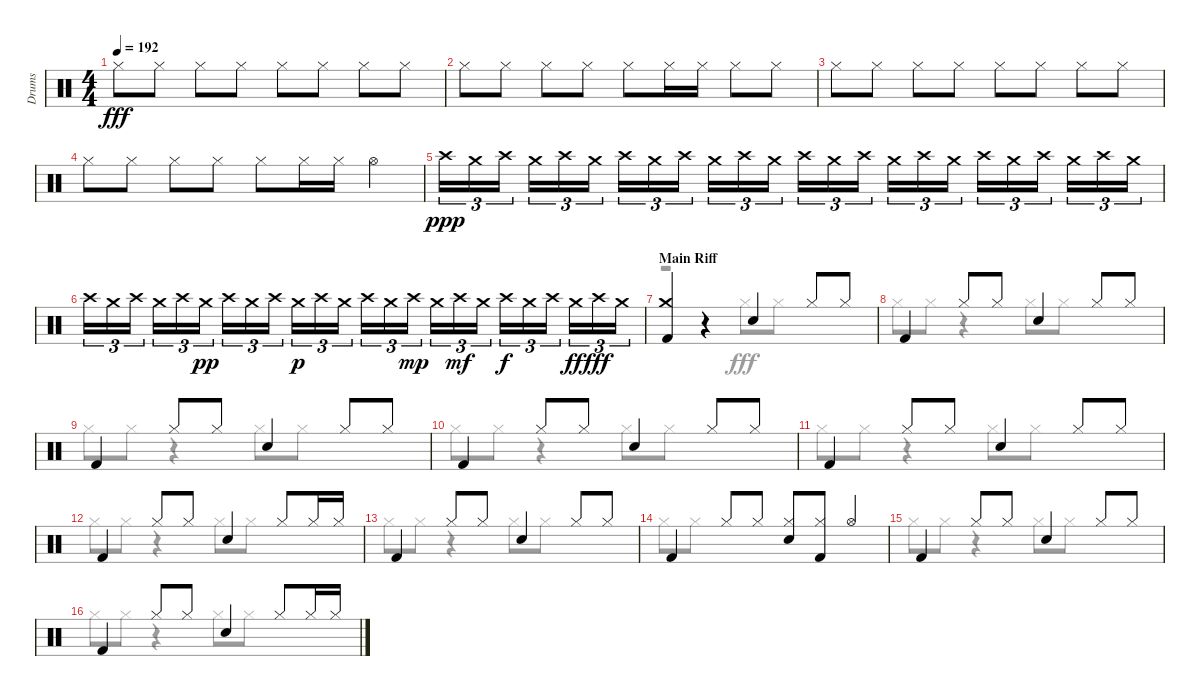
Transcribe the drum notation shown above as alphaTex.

\track ("Drums" "Drums") {instrument percussion}
\staff {score}
\articulation defaults
\voice
\ts (4 4)
\tempo 192
\clef neutral
\ks aminor "Hi-Hat (closed)".8{dy fff} "Hi-Hat (closed)".8 "Hi-Hat (closed)".8 "Hi-Hat (closed)".8 "Hi-Hat (closed)".8 "Hi-Hat (closed)".8 "Hi-Hat (closed)".8 "Hi-Hat (closed)".8
|
"Hi-Hat (closed)".8 "Hi-Hat (closed)".8 "Hi-Hat (closed)".8 "Hi-Hat (closed)".8 "Hi-Hat (closed)".8 "Hi-Hat (closed)".16 "Hi-Hat (closed)".16 "Hi-Hat (closed)".8 "Hi-Hat (closed)".8 |
"Hi-Hat (closed)".8 "Hi-Hat (closed)".8 "Hi-Hat (closed)".8 "Hi-Hat (closed)".8 "Hi-Hat (closed)".8 "Hi-Hat (closed)".8 "Hi-Hat (closed)".8 "Hi-Hat (closed)".8 |
"Hi-Hat (closed)".8 "Hi-Hat (closed)".8 "Hi-Hat (closed)".8 "Hi-Hat (closed)".8 "Hi-Hat (closed)".8 "Hi-Hat (closed)".16 "Hi-Hat (closed)".16 "Hi-Hat (open)".4 |
"Crash high (hit)".16{tu (3 2) dy ppp} "Crash medium (hit)".16{tu (3 2)} "Crash high (hit)".16{tu (3 2)} "Crash medium (hit)".16{tu (3 2)} "Crash high (hit)".16{tu (3 2)} "Crash medium (hit)".16{tu (3 2)} "Crash high (hit)".16{tu (3 2)} "Crash medium (hit)".16{tu (3 2)} "Crash high (hit)".16{tu (3 2)} "Crash medium (hit)".16{tu (3 2)} "Crash high (hit)".16{tu (3 2)} "Crash medium (hit)".16{tu (3 2)} "Crash high (hit)".16{tu (3 2)} "Crash medium (hit)".16{tu (3 2)} "Crash high (hit)".16{tu (3 2)} "Crash medium (hit)".16{tu (3 2)} "Crash high (hit)".16{tu (3 2)} "Crash medium (hit)".16{tu (3 2)} "Crash high (hit)".16{tu (3 2)} "Crash medium (hit)".16{tu (3 2)} "Crash high (hit)".16{tu (3 2)} "Crash medium (hit)".16{tu (3 2)} "Crash high (hit)".16{tu (3 2)} "Crash medium (hit)".16{tu (3 2)} |
"Crash high (hit)".16{tu (3 2)} "Crash medium (hit)".16{tu (3 2)} "Crash high (hit)".16{tu (3 2)} "Crash medium (hit)".16{tu (3 2)} "Crash high (hit)".16{tu (3 2)} "Crash medium (hit)".16{tu (3 2) dy pp} "Crash high (hit)".16{tu (3 2)} "Crash medium (hit)".16{tu (3 2)} "Crash high (hit)".16{tu (3 2)} "Crash medium (hit)".16{tu (3 2) dy p} "Crash high (hit)".16{tu (3 2)} "Crash medium (hit)".16{tu (3 2)} "Crash high (hit)".16{tu (3 2)} "Crash medium (hit)".16{tu (3 2)} "Crash high (hit)".16{tu (3 2) dy mp} "Crash medium (hit)".16{tu (3 2)} "Crash high (hit)".16{tu (3 2) dy mf} "Crash medium (hit)".16{tu (3 2)} "Crash high (hit)".16{tu (3 2) dy f} "Crash medium (hit)".16{tu (3 2)} "Crash high (hit)".16{tu (3 2)} "Crash medium (hit)".16{tu (3 2) dy ff} "Crash high (hit)".16{tu (3 2) dy fff} "Crash medium (hit)".16{tu (3 2)} |
\section ("" "Main Riff")
("Kick (hit) 2" "Crash medium (hit)").4 r.4 "Snare (hit) 2".4 "Hi-Hat (closed)".8 "Hi-Hat (closed)".8 |
"Kick (hit) 2".4 "Hi-Hat (closed)".8 "Hi-Hat (closed)".8 "Snare (hit) 2".4 "Hi-Hat (closed)".8 "Hi-Hat (closed)".8 |
"Kick (hit) 2".4 "Hi-Hat (closed)".8 "Hi-Hat (closed)".8 "Snare (hit) 2".4 "Hi-Hat (closed)".8 "Hi-Hat (closed)".8 |
"Kick (hit) 2".4 "Hi-Hat (closed)".8 "Hi-Hat (closed)".8 "Snare (hit) 2".4 "Hi-Hat (closed)".8 "Hi-Hat (closed)".8 |
"Kick (hit) 2".4 "Hi-Hat (closed)".8 "Hi-Hat (closed)".8 "Snare (hit) 2".4 "Hi-Hat (closed)".8 "Hi-Hat (closed)".8 |
"Kick (hit) 2".4 "Hi-Hat (closed)".8 "Hi-Hat (closed)".8 "Snare (hit) 2".4 "Hi-Hat (closed)".8 "Hi-Hat (closed)".16 "Hi-Hat (closed)".16 |
"Kick (hit) 2".4 "Hi-Hat (closed)".8 "Hi-Hat (closed)".8 "Snare (hit) 2".4 "Hi-Hat (closed)".8 "Hi-Hat (closed)".8 |
"Kick (hit) 2".4 "Hi-Hat (closed)".8 "Hi-Hat (closed)".8 ("Snare (hit) 2" "Hi-Hat (closed)").8 ("Hi-Hat (closed)" "Kick (hit) 2").8 "Hi-Hat (open)".4 |
"Kick (hit) 2".4 "Hi-Hat (closed)".8 "Hi-Hat (closed)".8 "Snare (hit) 2".4 "Hi-Hat (closed)".8 "Hi-Hat (closed)".8 |
"Kick (hit) 2".4 "Hi-Hat (closed)".8 "Hi-Hat (closed)".8 "Snare (hit) 2".4 "Hi-Hat (closed)".8 "Hi-Hat (closed)".16 "Hi-Hat (closed)".16
\voice
\clef neutral
\ottava regular
\simile none
\ks aminor
|
|
|
|
|
|
r.2 "Hi-Hat (closed)".8 "Hi-Hat (closed)".8 |
"Hi-Hat (closed)".8 "Hi-Hat (closed)".8 r.4 "Hi-Hat (closed)".8 "Hi-Hat (closed)".8 |
"Hi-Hat (closed)".8 "Hi-Hat (closed)".8 r.4 "Hi-Hat (closed)".8 "Hi-Hat (closed)".8 |
"Hi-Hat (closed)".8 "Hi-Hat (closed)".8 r.4 "Hi-Hat (closed)".8 "Hi-Hat (closed)".8 |
"Hi-Hat (closed)".8 "Hi-Hat (closed)".8 r.4 "Hi-Hat (closed)".8 "Hi-Hat (closed)".8 |
"Hi-Hat (closed)".8 "Hi-Hat (closed)".8 r.4 "Hi-Hat (closed)".8 "Hi-Hat (closed)".8 |
"Hi-Hat (closed)".8 "Hi-Hat (closed)".8 r.4 "Hi-Hat (closed)".8 "Hi-Hat (closed)".8 |
"Hi-Hat (closed)".8 "Hi-Hat (closed)".8 |
"Hi-Hat (closed)".8 "Hi-Hat (closed)".8 r.4 "Hi-Hat (closed)".8 "Hi-Hat (closed)".8 |
"Hi-Hat (closed)".8 "Hi-Hat (closed)".8 r.4 "Hi-Hat (closed)".8 "Hi-Hat (closed)".8
